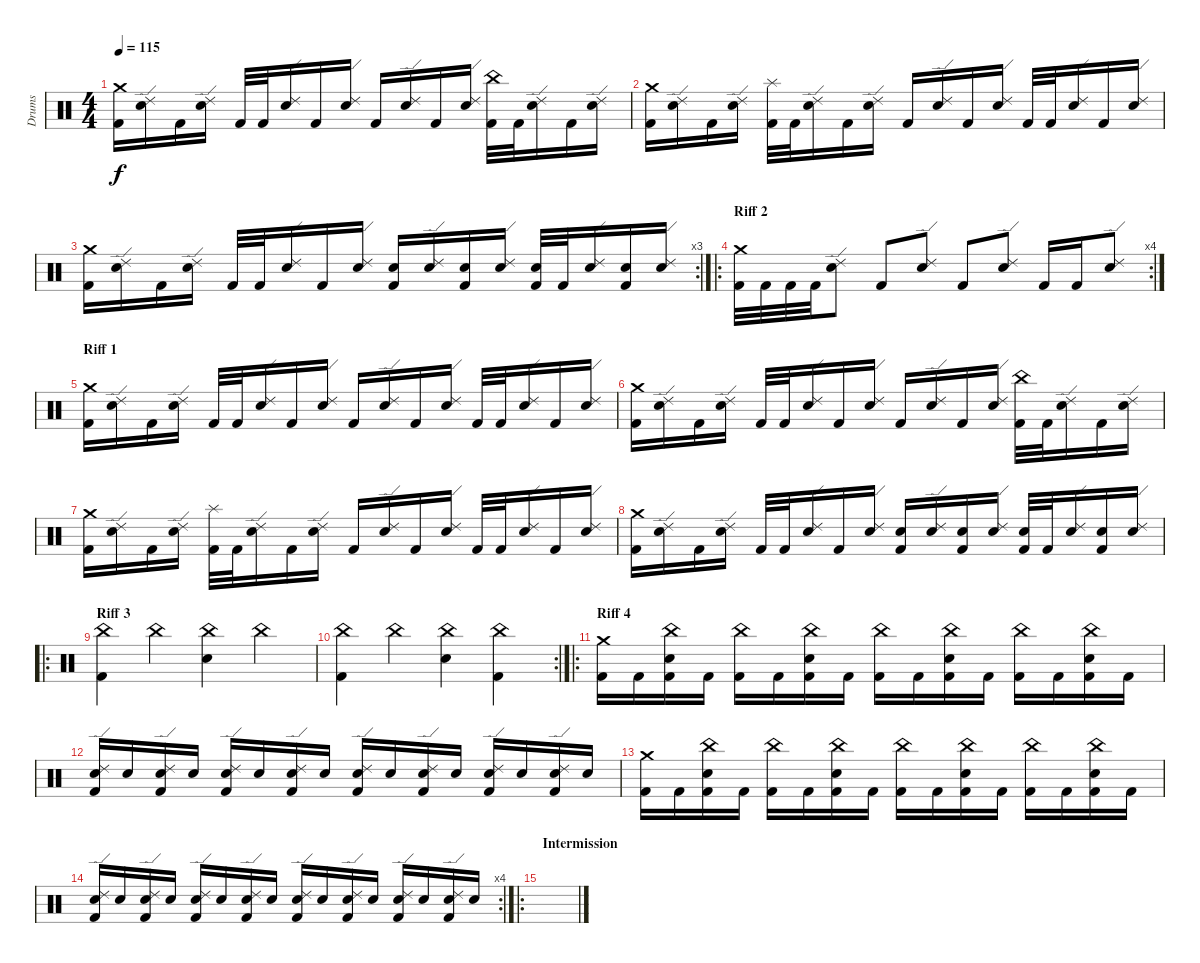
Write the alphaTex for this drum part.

\track ("Drums" "Drums") {instrument percussion}
\staff {score}
\articulation defaults
\ts (4 4)
\tempo 115
\clef neutral
\ks c
("Kick (hit) 2" "Crash medium (hit)").16{dy f} ("Snare (hit) 2" "Ride (edge) 2").16 "Kick (hit) 2".16 ("Snare (hit) 2" "Ride (edge) 2").16 "Kick (hit) 2".32 "Kick (hit) 2".32 ("Snare (hit) 2" "Ride (edge) 2").16 "Kick (hit) 2".16 ("Snare (hit) 2" "Ride (edge) 2").16 "Kick (hit) 2".16 ("Snare (hit) 2" "Ride (edge) 2").16 "Kick (hit) 2".16 ("Snare (hit) 2" "Ride (edge) 2").16 ("Kick (hit) 2" "China (hit)").32 "Kick (hit) 2".32 ("Snare (hit) 2" "Ride (edge) 2").16 "Kick (hit) 2".16 ("Snare (hit) 2" "Ride (edge) 2").16 |
("Kick (hit) 2" "Crash medium (hit)").16 ("Snare (hit) 2" "Ride (edge) 2").16 "Kick (hit) 2".16 ("Snare (hit) 2" "Ride (edge) 2").16 ("Kick (hit) 2" "Splash (hit)").32 "Kick (hit) 2".32 ("Snare (hit) 2" "Ride (edge) 2").16 "Kick (hit) 2".16 ("Snare (hit) 2" "Ride (edge) 2").16 "Kick (hit) 2".16 ("Snare (hit) 2" "Ride (edge) 2").16 "Kick (hit) 2".16 ("Snare (hit) 2" "Ride (edge) 2").16 "Kick (hit) 2".32 "Kick (hit) 2".32 ("Snare (hit) 2" "Ride (edge) 2").16 "Kick (hit) 2".16 ("Snare (hit) 2" "Ride (edge) 2").16 |
\rc 3
("Kick (hit) 2" "Crash medium (hit)").16 ("Snare (hit) 2" "Ride (edge) 2").16 "Kick (hit) 2".16 ("Snare (hit) 2" "Ride (edge) 2").16 "Kick (hit) 2".32 "Kick (hit) 2".32 ("Snare (hit) 2" "Ride (edge) 2").16 "Kick (hit) 2".16 ("Snare (hit) 2" "Ride (edge) 2").16 ("Kick (hit) 2" "Snare (hit) 2").16 ("Snare (hit) 2" "Ride (edge) 2").16 ("Kick (hit) 2" "Snare (hit) 2").16 ("Snare (hit) 2" "Ride (edge) 2").16 ("Kick (hit) 2" "Snare (hit) 2").32 "Kick (hit) 2".32 ("Snare (hit) 2" "Ride (edge) 2").16 ("Kick (hit) 2" "Snare (hit) 2").16 ("Snare (hit) 2" "Ride (edge) 2").16 |
\ro
\rc 4
\section ("" "Riff 2")
("Kick (hit) 2" "Crash medium (hit)").32 "Kick (hit) 2".32 "Kick (hit) 2".32 "Kick (hit) 2".32 ("Snare (hit) 2" "Ride (edge) 2").8 "Kick (hit) 2".8 ("Snare (hit) 2" "Ride (edge) 2").8 "Kick (hit) 2".8 ("Snare (hit) 2" "Ride (edge) 2").8 "Kick (hit) 2".16 "Kick (hit) 2".16 ("Snare (hit) 2" "Ride (edge) 2").8 |
\section ("" "Riff 1")
("Kick (hit) 2" "Crash medium (hit)").16 ("Snare (hit) 2" "Ride (edge) 2").16 "Kick (hit) 2".16 ("Snare (hit) 2" "Ride (edge) 2").16 "Kick (hit) 2".32 "Kick (hit) 2".32 ("Snare (hit) 2" "Ride (edge) 2").16 "Kick (hit) 2".16 ("Snare (hit) 2" "Ride (edge) 2").16 "Kick (hit) 2".16 ("Snare (hit) 2" "Ride (edge) 2").16 "Kick (hit) 2".16 ("Snare (hit) 2" "Ride (edge) 2").16 "Kick (hit) 2".32 "Kick (hit) 2".32 ("Snare (hit) 2" "Ride (edge) 2").16 "Kick (hit) 2".16 ("Snare (hit) 2" "Ride (edge) 2").16 |
("Kick (hit) 2" "Crash medium (hit)").16 ("Snare (hit) 2" "Ride (edge) 2").16 "Kick (hit) 2".16 ("Snare (hit) 2" "Ride (edge) 2").16 "Kick (hit) 2".32 "Kick (hit) 2".32 ("Snare (hit) 2" "Ride (edge) 2").16 "Kick (hit) 2".16 ("Snare (hit) 2" "Ride (edge) 2").16 "Kick (hit) 2".16 ("Snare (hit) 2" "Ride (edge) 2").16 "Kick (hit) 2".16 ("Snare (hit) 2" "Ride (edge) 2").16 ("Kick (hit) 2" "China (hit)").32 "Kick (hit) 2".32 ("Snare (hit) 2" "Ride (edge) 2").16 "Kick (hit) 2".16 ("Snare (hit) 2" "Ride (edge) 2").16 |
("Kick (hit) 2" "Crash medium (hit)").16 ("Snare (hit) 2" "Ride (edge) 2").16 "Kick (hit) 2".16 ("Snare (hit) 2" "Ride (edge) 2").16 ("Kick (hit) 2" "Splash (hit)").32 "Kick (hit) 2".32 ("Snare (hit) 2" "Ride (edge) 2").16 "Kick (hit) 2".16 ("Snare (hit) 2" "Ride (edge) 2").16 "Kick (hit) 2".16 ("Snare (hit) 2" "Ride (edge) 2").16 "Kick (hit) 2".16 ("Snare (hit) 2" "Ride (edge) 2").16 "Kick (hit) 2".32 "Kick (hit) 2".32 ("Snare (hit) 2" "Ride (edge) 2").16 "Kick (hit) 2".16 ("Snare (hit) 2" "Ride (edge) 2").16 |
("Kick (hit) 2" "Crash medium (hit)").16 ("Snare (hit) 2" "Ride (edge) 2").16 "Kick (hit) 2".16 ("Snare (hit) 2" "Ride (edge) 2").16 "Kick (hit) 2".32 "Kick (hit) 2".32 ("Snare (hit) 2" "Ride (edge) 2").16 "Kick (hit) 2".16 ("Snare (hit) 2" "Ride (edge) 2").16 ("Kick (hit) 2" "Snare (hit) 2").16 ("Snare (hit) 2" "Ride (edge) 2").16 ("Kick (hit) 2" "Snare (hit) 2").16 ("Snare (hit) 2" "Ride (edge) 2").16 ("Kick (hit) 2" "Snare (hit) 2").32 "Kick (hit) 2".32 ("Snare (hit) 2" "Ride (edge) 2").16 ("Kick (hit) 2" "Snare (hit) 2").16 ("Snare (hit) 2" "Ride (edge) 2").16 |
\ro
\section ("" "Riff 3")
("Kick (hit) 2" "China (hit)").4 "China (hit)".4 ("Snare (hit) 2" "China (hit)").4 "China (hit)".4 |
\rc 2
("Kick (hit) 2" "China (hit)").4 "China (hit)".4 ("Snare (hit) 2" "China (hit)").4 ("Kick (hit) 2" "China (hit)").4 |
\ro
\section ("" "Riff 4")
("Kick (hit) 2" "Crash medium (hit)").16 "Kick (hit) 2".16 ("Kick (hit) 2" "Snare (hit) 2" "China (hit)").16 "Kick (hit) 2".16 ("Kick (hit) 2" "China (hit)").16 "Kick (hit) 2".16 ("Kick (hit) 2" "Snare (hit) 2" "China (hit)").16 "Kick (hit) 2".16 ("Kick (hit) 2" "China (hit)").16 "Kick (hit) 2".16 ("Kick (hit) 2" "Snare (hit) 2" "China (hit)").16 "Kick (hit) 2".16 ("Kick (hit) 2" "China (hit)").16 "Kick (hit) 2".16 ("Kick (hit) 2" "Snare (hit) 2" "China (hit)").16 "Kick (hit) 2".16 |
("Kick (hit) 2" "Snare (hit) 2" "Ride (edge) 2").16 "Snare (hit) 2".16 ("Kick (hit) 2" "Snare (hit) 2" "Ride (edge) 2").16 "Snare (hit) 2".16 ("Kick (hit) 2" "Snare (hit) 2" "Ride (edge) 2").16 "Snare (hit) 2".16 ("Kick (hit) 2" "Snare (hit) 2" "Ride (edge) 2").16 "Snare (hit) 2".16 ("Kick (hit) 2" "Snare (hit) 2" "Ride (edge) 2").16 "Snare (hit) 2".16 ("Kick (hit) 2" "Snare (hit) 2" "Ride (edge) 2").16 "Snare (hit) 2".16 ("Kick (hit) 2" "Snare (hit) 2" "Ride (edge) 2").16 "Snare (hit) 2".16 ("Kick (hit) 2" "Snare (hit) 2" "Ride (edge) 2").16 "Snare (hit) 2".16 |
("Kick (hit) 2" "Crash medium (hit)").16 "Kick (hit) 2".16 ("Kick (hit) 2" "Snare (hit) 2" "China (hit)").16 "Kick (hit) 2".16 ("Kick (hit) 2" "China (hit)").16 "Kick (hit) 2".16 ("Kick (hit) 2" "Snare (hit) 2" "China (hit)").16 "Kick (hit) 2".16 ("Kick (hit) 2" "China (hit)").16 "Kick (hit) 2".16 ("Kick (hit) 2" "Snare (hit) 2" "China (hit)").16 "Kick (hit) 2".16 ("Kick (hit) 2" "China (hit)").16 "Kick (hit) 2".16 ("Kick (hit) 2" "Snare (hit) 2" "China (hit)").16 "Kick (hit) 2".16 |
\rc 4
("Kick (hit) 2" "Snare (hit) 2" "Ride (edge) 2").16 "Snare (hit) 2".16 ("Kick (hit) 2" "Snare (hit) 2" "Ride (edge) 2").16 "Snare (hit) 2".16 ("Kick (hit) 2" "Snare (hit) 2" "Ride (edge) 2").16 "Snare (hit) 2".16 ("Kick (hit) 2" "Snare (hit) 2" "Ride (edge) 2").16 "Snare (hit) 2".16 ("Kick (hit) 2" "Snare (hit) 2" "Ride (edge) 2").16 "Snare (hit) 2".16 ("Kick (hit) 2" "Snare (hit) 2" "Ride (edge) 2").16 "Snare (hit) 2".16 ("Kick (hit) 2" "Snare (hit) 2" "Ride (edge) 2").16 "Snare (hit) 2".16 ("Kick (hit) 2" "Snare (hit) 2" "Ride (edge) 2").16 "Snare (hit) 2".16 |
\ro
\section ("" "Intermission")
